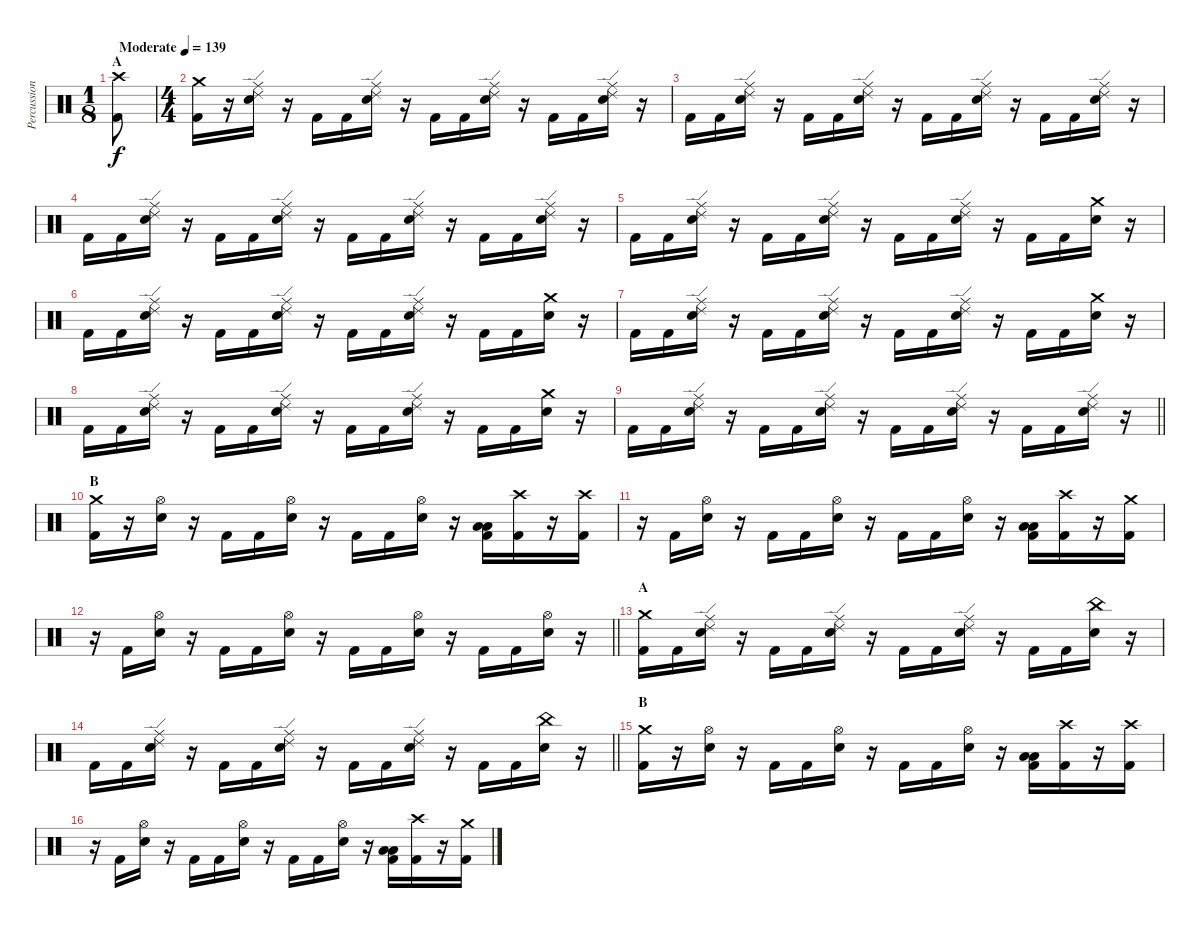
\track ("Percussion" "Percussion") {instrument percussion}
\staff {score}
\articulation defaults
\ts (1 8)
\section ("" "A")
\tempo (139 "Moderate")
\clef neutral
\ks c
("Crash high (hit)" "Kick (hit) 2").8{dy f} |
\ts (4 4)
("Crash medium (hit)" "Kick (hit) 2").16 r.16 ("Ride (middle)" "Ride (edge) 2" "Electric Snare (hit)").16 r.16 "Kick (hit) 2".16 "Kick (hit) 2".16 ("Ride (middle)" "Ride (edge) 2" "Electric Snare (hit)").16 r.16 "Kick (hit) 2".16 "Kick (hit) 2".16 ("Ride (middle)" "Ride (edge) 2" "Electric Snare (hit)").16 r.16 "Kick (hit) 2".16 "Kick (hit) 2".16 ("Ride (middle)" "Ride (edge) 2" "Electric Snare (hit)").16 r.16 |
"Kick (hit) 2".16 "Kick (hit) 2".16 ("Ride (middle)" "Ride (edge) 2" "Electric Snare (hit)").16 r.16 "Kick (hit) 2".16 "Kick (hit) 2".16 ("Ride (middle)" "Ride (edge) 2" "Electric Snare (hit)").16 r.16 "Kick (hit) 2".16 "Kick (hit) 2".16 ("Ride (middle)" "Ride (edge) 2" "Electric Snare (hit)").16 r.16 "Kick (hit) 2".16 "Kick (hit) 2".16 ("Ride (middle)" "Ride (edge) 2" "Electric Snare (hit)").16 r.16 |
"Kick (hit) 2".16 "Kick (hit) 2".16 ("Ride (middle)" "Ride (edge) 2" "Electric Snare (hit)").16 r.16 "Kick (hit) 2".16 "Kick (hit) 2".16 ("Ride (middle)" "Ride (edge) 2" "Electric Snare (hit)").16 r.16 "Kick (hit) 2".16 "Kick (hit) 2".16 ("Ride (middle)" "Ride (edge) 2" "Electric Snare (hit)").16 r.16 "Kick (hit) 2".16 "Kick (hit) 2".16 ("Ride (middle)" "Ride (edge) 2" "Electric Snare (hit)").16 r.16 |
"Kick (hit) 2".16 "Kick (hit) 2".16 ("Ride (middle)" "Ride (edge) 2" "Electric Snare (hit)").16 r.16 "Kick (hit) 2".16 "Kick (hit) 2".16 ("Ride (middle)" "Ride (edge) 2" "Electric Snare (hit)").16 r.16 "Kick (hit) 2".16 "Kick (hit) 2".16 ("Ride (middle)" "Ride (edge) 2" "Electric Snare (hit)").16 r.16 "Kick (hit) 2".16 "Kick (hit) 2".16 ("Crash medium (hit)" "Electric Snare (hit)").16 r.16 |
"Kick (hit) 2".16 "Kick (hit) 2".16 ("Ride (middle)" "Ride (edge) 2" "Electric Snare (hit)").16 r.16 "Kick (hit) 2".16 "Kick (hit) 2".16 ("Ride (middle)" "Ride (edge) 2" "Electric Snare (hit)").16 r.16 "Kick (hit) 2".16 "Kick (hit) 2".16 ("Ride (middle)" "Ride (edge) 2" "Electric Snare (hit)").16 r.16 "Kick (hit) 2".16 "Kick (hit) 2".16 ("Crash medium (hit)" "Electric Snare (hit)").16 r.16 |
"Kick (hit) 2".16 "Kick (hit) 2".16 ("Ride (middle)" "Ride (edge) 2" "Electric Snare (hit)").16 r.16 "Kick (hit) 2".16 "Kick (hit) 2".16 ("Ride (middle)" "Ride (edge) 2" "Electric Snare (hit)").16 r.16 "Kick (hit) 2".16 "Kick (hit) 2".16 ("Ride (middle)" "Ride (edge) 2" "Electric Snare (hit)").16 r.16 "Kick (hit) 2".16 "Kick (hit) 2".16 ("Crash medium (hit)" "Electric Snare (hit)").16 r.16 |
"Kick (hit) 2".16 "Kick (hit) 2".16 ("Ride (middle)" "Ride (edge) 2" "Electric Snare (hit)").16 r.16 "Kick (hit) 2".16 "Kick (hit) 2".16 ("Ride (middle)" "Ride (edge) 2" "Electric Snare (hit)").16 r.16 "Kick (hit) 2".16 "Kick (hit) 2".16 ("Ride (middle)" "Ride (edge) 2" "Electric Snare (hit)").16 r.16 "Kick (hit) 2".16 "Kick (hit) 2".16 ("Crash medium (hit)" "Electric Snare (hit)").16 r.16 |
\barLineRight lightlight "Kick (hit) 2".16 "Kick (hit) 2".16
("Ride (middle)" "Ride (edge) 2" "Electric Snare (hit)").16 r.16 "Kick (hit) 2".16 "Kick (hit) 2".16 ("Ride (middle)" "Ride (edge) 2" "Electric Snare (hit)").16 r.16 "Kick (hit) 2".16 "Kick (hit) 2".16 ("Ride (middle)" "Ride (edge) 2" "Electric Snare (hit)").16 r.16 "Kick (hit) 2".16 "Kick (hit) 2".16 ("Ride (middle)" "Ride (edge) 2" "Electric Snare (hit)").16 r.16 |
\section ("" "B")
("Crash medium (hit)" "Kick (hit) 2").16 r.16 ("Hi-Hat (open)" "Electric Snare (hit)").16 r.16 "Kick (hit) 2".16 "Kick (hit) 2".16 ("Hi-Hat (open)" "Electric Snare (hit)").16 r.16 "Kick (hit) 2".16 "Kick (hit) 2".16 ("Hi-Hat (open)" "Electric Snare (hit)").16 r.16 ("Low Tom (hit)" "Low Floor Tom (hit)" "Kick (hit) 2").16 ("Crash high (hit)" "Kick (hit) 2").16 r.16 ("Crash high (hit)" "Kick (hit) 2").16 |
r.16 "Kick (hit) 2".16 ("Hi-Hat (open)" "Electric Snare (hit)").16 r.16 "Kick (hit) 2".16 "Kick (hit) 2".16 ("Hi-Hat (open)" "Electric Snare (hit)").16 r.16 "Kick (hit) 2".16 "Kick (hit) 2".16 ("Hi-Hat (open)" "Electric Snare (hit)").16 r.16 ("Low Tom (hit)" "Low Floor Tom (hit)" "Kick (hit) 2").16 ("Crash high (hit)" "Kick (hit) 2").16 r.16 ("Crash medium (hit)" "Kick (hit) 2").16 |
\barLineRight lightlight
r.16 "Kick (hit) 2".16 ("Hi-Hat (open)" "Electric Snare (hit)").16 r.16 "Kick (hit) 2".16 "Kick (hit) 2".16 ("Hi-Hat (open)" "Electric Snare (hit)").16 r.16 "Kick (hit) 2".16 "Kick (hit) 2".16 ("Hi-Hat (open)" "Electric Snare (hit)").16 r.16 "Kick (hit) 2".16 "Kick (hit) 2".16 ("Hi-Hat (open)" "Electric Snare (hit)").16 r.16 |
\section ("" "A")
("Crash medium (hit)" "Kick (hit) 2").16 "Kick (hit) 2".16 ("Ride (middle)" "Ride (edge) 2" "Electric Snare (hit)").16 r.16 "Kick (hit) 2".16 "Kick (hit) 2".16 ("Ride (middle)" "Ride (edge) 2" "Electric Snare (hit)").16 r.16 "Kick (hit) 2".16 "Kick (hit) 2".16 ("Ride (middle)" "Ride (edge) 2" "Electric Snare (hit)").16 r.16 "Kick (hit) 2".16 "Kick (hit) 2".16 ("China (hit)" "Electric Snare (hit)").16 r.16 |
\barLineRight lightlight "Kick (hit) 2".16 "Kick (hit) 2".16
("Ride (middle)" "Ride (edge) 2" "Electric Snare (hit)").16 r.16 "Kick (hit) 2".16 "Kick (hit) 2".16 ("Ride (middle)" "Ride (edge) 2" "Electric Snare (hit)").16 r.16 "Kick (hit) 2".16 "Kick (hit) 2".16 ("Ride (middle)" "Ride (edge) 2" "Electric Snare (hit)").16 r.16 "Kick (hit) 2".16 "Kick (hit) 2".16 ("China (hit)" "Electric Snare (hit)").16 r.16 |
\section ("" "B")
("Crash medium (hit)" "Kick (hit) 2").16 r.16 ("Hi-Hat (open)" "Electric Snare (hit)").16 r.16 "Kick (hit) 2".16 "Kick (hit) 2".16 ("Hi-Hat (open)" "Electric Snare (hit)").16 r.16 "Kick (hit) 2".16 "Kick (hit) 2".16 ("Hi-Hat (open)" "Electric Snare (hit)").16 r.16 ("Low Tom (hit)" "Low Floor Tom (hit)" "Kick (hit) 2").16 ("Crash high (hit)" "Kick (hit) 2").16 r.16 ("Crash high (hit)" "Kick (hit) 2").16 |
r.16 "Kick (hit) 2".16 ("Hi-Hat (open)" "Electric Snare (hit)").16 r.16 "Kick (hit) 2".16 "Kick (hit) 2".16 ("Hi-Hat (open)" "Electric Snare (hit)").16 r.16 "Kick (hit) 2".16 "Kick (hit) 2".16 ("Hi-Hat (open)" "Electric Snare (hit)").16 r.16 ("Low Tom (hit)" "Low Floor Tom (hit)" "Kick (hit) 2").16 ("Crash high (hit)" "Kick (hit) 2").16 r.16 ("Crash medium (hit)" "Kick (hit) 2").16
